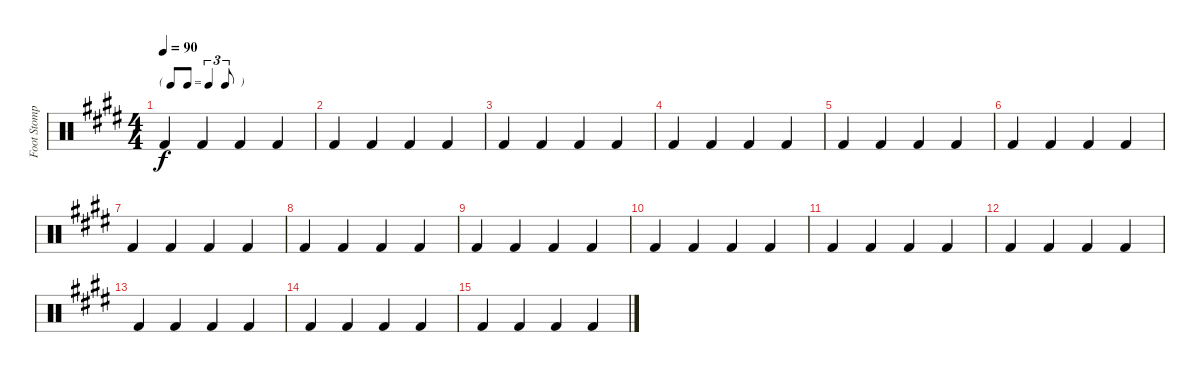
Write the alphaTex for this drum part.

\track ("Foot Stomp" "Foot Stomp") {instrument percussion}
\staff {score}
\articulation defaults
\ts (4 4)
\tf triplet8th
\tempo 90
\clef neutral
\ks e "Kick (hit) 2".4{dy f} "Kick (hit) 2".4 "Kick (hit) 2".4 "Kick (hit) 2".4
|
"Kick (hit) 2".4 "Kick (hit) 2".4 "Kick (hit) 2".4 "Kick (hit) 2".4 |
"Kick (hit) 2".4 "Kick (hit) 2".4 "Kick (hit) 2".4 "Kick (hit) 2".4 |
"Kick (hit) 2".4 "Kick (hit) 2".4 "Kick (hit) 2".4 "Kick (hit) 2".4 |
"Kick (hit) 2".4 "Kick (hit) 2".4 "Kick (hit) 2".4 "Kick (hit) 2".4 |
"Kick (hit) 2".4 "Kick (hit) 2".4 "Kick (hit) 2".4 "Kick (hit) 2".4 |
"Kick (hit) 2".4 "Kick (hit) 2".4 "Kick (hit) 2".4 "Kick (hit) 2".4 |
"Kick (hit) 2".4 "Kick (hit) 2".4 "Kick (hit) 2".4 "Kick (hit) 2".4 |
"Kick (hit) 2".4 "Kick (hit) 2".4 "Kick (hit) 2".4 "Kick (hit) 2".4 |
"Kick (hit) 2".4 "Kick (hit) 2".4 "Kick (hit) 2".4 "Kick (hit) 2".4 |
"Kick (hit) 2".4 "Kick (hit) 2".4 "Kick (hit) 2".4 "Kick (hit) 2".4 |
"Kick (hit) 2".4 "Kick (hit) 2".4 "Kick (hit) 2".4 "Kick (hit) 2".4 |
"Kick (hit) 2".4 "Kick (hit) 2".4 "Kick (hit) 2".4 "Kick (hit) 2".4 |
"Kick (hit) 2".4 "Kick (hit) 2".4 "Kick (hit) 2".4 "Kick (hit) 2".4 |
"Kick (hit) 2".4 "Kick (hit) 2".4 "Kick (hit) 2".4 "Kick (hit) 2".4
